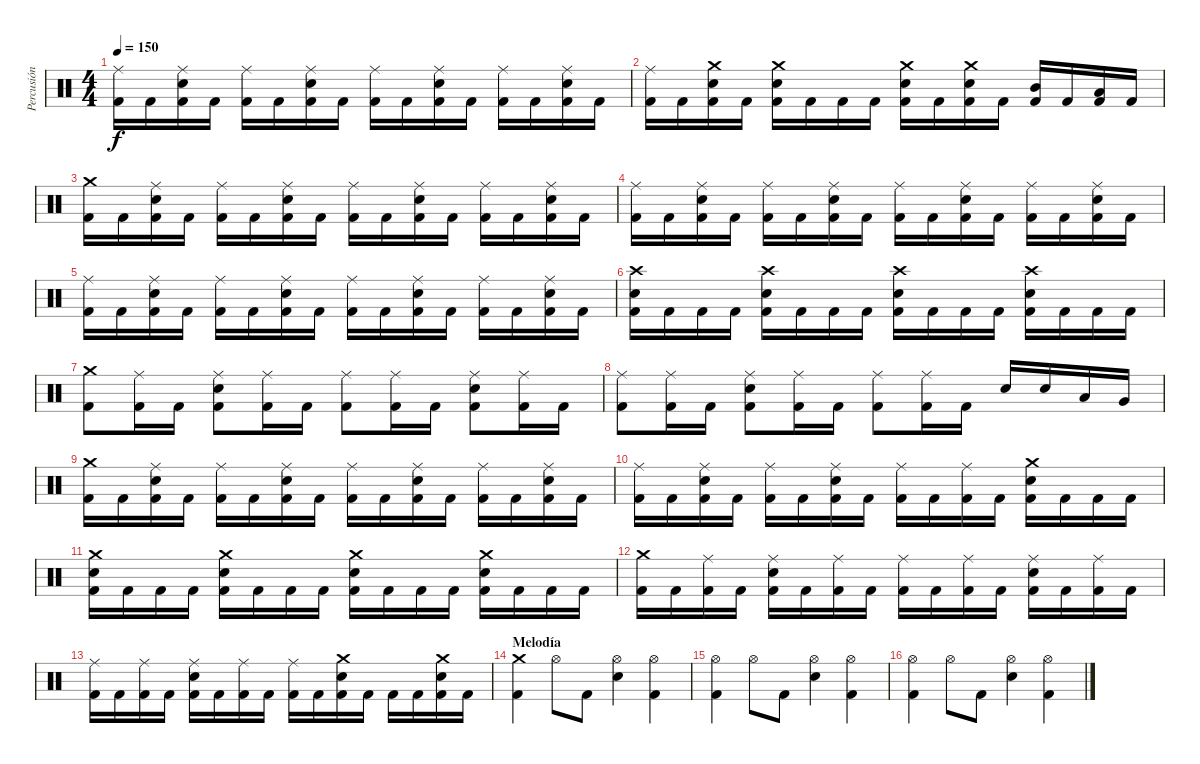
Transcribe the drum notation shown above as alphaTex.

\track ("Percusión" "Percusión") {instrument percussion}
\staff {score}
\articulation defaults
\ts (4 4)
\tempo 150
\clef neutral
\ks c
("Ride (middle)" "Kick (hit) 2").16{dy f} "Kick (hit) 2".16 ("Ride (middle)" "Kick (hit) 2" "Snare (hit) 2").16 "Kick (hit) 2".16 ("Ride (middle)" "Kick (hit) 2").16 "Kick (hit) 2".16 ("Ride (middle)" "Kick (hit) 2" "Snare (hit) 2").16 "Kick (hit) 2".16 ("Ride (middle)" "Kick (hit) 2").16 "Kick (hit) 2".16 ("Ride (middle)" "Kick (hit) 2" "Snare (hit) 2").16 "Kick (hit) 2".16 ("Ride (middle)" "Kick (hit) 2").16 "Kick (hit) 2".16 ("Ride (middle)" "Kick (hit) 2" "Snare (hit) 2").16 "Kick (hit) 2".16 |
("Ride (middle)" "Kick (hit) 2").16 "Kick (hit) 2".16 ("Crash medium (hit)" "Kick (hit) 2" "Snare (hit) 2").16 "Kick (hit) 2".16 ("Crash medium (hit)" "Kick (hit) 2" "Snare (hit) 2").16 "Kick (hit) 2".16 "Kick (hit) 2".16 "Kick (hit) 2".16 ("Crash medium (hit)" "Kick (hit) 2" "Snare (hit) 2").16 "Kick (hit) 2".16 ("Crash medium (hit)" "Kick (hit) 2" "Snare (hit) 2").16 "Kick (hit) 2".16 ("Kick (hit) 2" "Mid Tom (hit)").16 "Kick (hit) 2".16 ("Kick (hit) 2" "Low Tom (hit)").16 "Kick (hit) 2".16 |
("Crash medium (hit)" "Kick (hit) 2").16 "Kick (hit) 2".16 ("Ride (middle)" "Kick (hit) 2" "Snare (hit) 2").16 "Kick (hit) 2".16 ("Ride (middle)" "Kick (hit) 2").16 "Kick (hit) 2".16 ("Ride (middle)" "Kick (hit) 2" "Snare (hit) 2").16 "Kick (hit) 2".16 ("Ride (middle)" "Kick (hit) 2").16 "Kick (hit) 2".16 ("Ride (middle)" "Kick (hit) 2" "Snare (hit) 2").16 "Kick (hit) 2".16 ("Ride (middle)" "Kick (hit) 2").16 "Kick (hit) 2".16 ("Ride (middle)" "Kick (hit) 2" "Snare (hit) 2").16 "Kick (hit) 2".16 |
("Ride (middle)" "Kick (hit) 2").16 "Kick (hit) 2".16 ("Ride (middle)" "Kick (hit) 2" "Snare (hit) 2").16 "Kick (hit) 2".16 ("Ride (middle)" "Kick (hit) 2").16 "Kick (hit) 2".16 ("Ride (middle)" "Kick (hit) 2" "Snare (hit) 2").16 "Kick (hit) 2".16 ("Ride (middle)" "Kick (hit) 2").16 "Kick (hit) 2".16 ("Ride (middle)" "Kick (hit) 2" "Snare (hit) 2").16 "Kick (hit) 2".16 ("Ride (middle)" "Kick (hit) 2").16 "Kick (hit) 2".16 ("Ride (middle)" "Kick (hit) 2" "Snare (hit) 2").16 "Kick (hit) 2".16 |
("Ride (middle)" "Kick (hit) 2").16 "Kick (hit) 2".16 ("Ride (middle)" "Kick (hit) 2" "Snare (hit) 2").16 "Kick (hit) 2".16 ("Ride (middle)" "Kick (hit) 2").16 "Kick (hit) 2".16 ("Ride (middle)" "Kick (hit) 2" "Snare (hit) 2").16 "Kick (hit) 2".16 ("Ride (middle)" "Kick (hit) 2").16 "Kick (hit) 2".16 ("Ride (middle)" "Kick (hit) 2" "Snare (hit) 2").16 "Kick (hit) 2".16 ("Ride (middle)" "Kick (hit) 2").16 "Kick (hit) 2".16 ("Ride (middle)" "Kick (hit) 2" "Snare (hit) 2").16 "Kick (hit) 2".16 |
("Crash high (hit)" "Kick (hit) 2" "Snare (hit) 2").16 "Kick (hit) 2".16 "Kick (hit) 2".16 "Kick (hit) 2".16 ("Crash high (hit)" "Kick (hit) 2" "Snare (hit) 2").16 "Kick (hit) 2".16 "Kick (hit) 2".16 "Kick (hit) 2".16 ("Crash high (hit)" "Kick (hit) 2" "Snare (hit) 2").16 "Kick (hit) 2".16 "Kick (hit) 2".16 "Kick (hit) 2".16 ("Crash high (hit)" "Kick (hit) 2" "Snare (hit) 2").16 "Kick (hit) 2".16 "Kick (hit) 2".16 "Kick (hit) 2".16 |
("Crash medium (hit)" "Kick (hit) 2").8 ("Ride (middle)" "Kick (hit) 2").16 "Kick (hit) 2".16 ("Ride (middle)" "Kick (hit) 2" "Snare (hit) 2").8 ("Ride (middle)" "Kick (hit) 2").16 "Kick (hit) 2".16 ("Ride (middle)" "Kick (hit) 2").8 ("Ride (middle)" "Kick (hit) 2").16 "Kick (hit) 2".16 ("Ride (middle)" "Kick (hit) 2" "Snare (hit) 2").8 ("Ride (middle)" "Kick (hit) 2").16 "Kick (hit) 2".16 |
("Ride (middle)" "Kick (hit) 2").8 ("Ride (middle)" "Kick (hit) 2").16 "Kick (hit) 2".16 ("Ride (middle)" "Kick (hit) 2" "Snare (hit) 2").8 ("Ride (middle)" "Kick (hit) 2").16 "Kick (hit) 2".16 ("Ride (middle)" "Kick (hit) 2").8 ("Ride (middle)" "Kick (hit) 2").16 "Kick (hit) 2".16 "Snare (hit) 2".16 "Snare (hit) 2".16 "Low Tom (hit)".16 "Very Low Tom (hit)".16 |
("Crash medium (hit)" "Kick (hit) 2").16 "Kick (hit) 2".16 ("Ride (middle)" "Kick (hit) 2" "Snare (hit) 2").16 "Kick (hit) 2".16 ("Ride (middle)" "Kick (hit) 2").16 "Kick (hit) 2".16 ("Ride (middle)" "Kick (hit) 2" "Snare (hit) 2").16 "Kick (hit) 2".16 ("Ride (middle)" "Kick (hit) 2").16 "Kick (hit) 2".16 ("Ride (middle)" "Kick (hit) 2" "Snare (hit) 2").16 "Kick (hit) 2".16 ("Ride (middle)" "Kick (hit) 2").16 "Kick (hit) 2".16 ("Ride (middle)" "Kick (hit) 2" "Snare (hit) 2").16 "Kick (hit) 2".16 |
("Ride (middle)" "Kick (hit) 2").16 "Kick (hit) 2".16 ("Ride (middle)" "Kick (hit) 2" "Snare (hit) 2").16 "Kick (hit) 2".16 ("Ride (middle)" "Kick (hit) 2").16 "Kick (hit) 2".16 ("Ride (middle)" "Kick (hit) 2" "Snare (hit) 2").16 "Kick (hit) 2".16 ("Ride (middle)" "Kick (hit) 2").16 "Kick (hit) 2".16 ("Ride (middle)" "Kick (hit) 2").16 "Kick (hit) 2".16 ("Crash medium (hit)" "Kick (hit) 2" "Snare (hit) 2").16 "Kick (hit) 2".16 "Kick (hit) 2".16 "Kick (hit) 2".16 |
("Crash medium (hit)" "Kick (hit) 2" "Snare (hit) 2").16 "Kick (hit) 2".16 "Kick (hit) 2".16 "Kick (hit) 2".16 ("Crash medium (hit)" "Kick (hit) 2" "Snare (hit) 2").16 "Kick (hit) 2".16 "Kick (hit) 2".16 "Kick (hit) 2".16 ("Crash medium (hit)" "Kick (hit) 2" "Snare (hit) 2").16 "Kick (hit) 2".16 "Kick (hit) 2".16 "Kick (hit) 2".16 ("Crash medium (hit)" "Kick (hit) 2" "Snare (hit) 2").16 "Kick (hit) 2".16 "Kick (hit) 2".16 "Kick (hit) 2".16 |
("Crash medium (hit)" "Kick (hit) 2").16 "Kick (hit) 2".16 ("Ride (middle)" "Kick (hit) 2").16 "Kick (hit) 2".16 ("Ride (middle)" "Kick (hit) 2" "Snare (hit) 2").16 "Kick (hit) 2".16 ("Ride (middle)" "Kick (hit) 2").16 "Kick (hit) 2".16 ("Ride (middle)" "Kick (hit) 2").16 "Kick (hit) 2".16 ("Ride (middle)" "Kick (hit) 2").16 "Kick (hit) 2".16 ("Ride (middle)" "Kick (hit) 2" "Snare (hit) 2").16 "Kick (hit) 2".16 ("Ride (middle)" "Kick (hit) 2").16 "Kick (hit) 2".16 |
("Ride (middle)" "Kick (hit) 2").16 "Kick (hit) 2".16 ("Ride (middle)" "Kick (hit) 2").16 "Kick (hit) 2".16 ("Ride (middle)" "Kick (hit) 2" "Snare (hit) 2").16 "Kick (hit) 2".16 ("Ride (middle)" "Kick (hit) 2").16 "Kick (hit) 2".16 ("Ride (middle)" "Kick (hit) 2").16 "Kick (hit) 2".16 ("Crash medium (hit)" "Kick (hit) 2" "Snare (hit) 2").16 "Kick (hit) 2".16 "Kick (hit) 2".16 "Kick (hit) 2".16 ("Crash medium (hit)" "Kick (hit) 2" "Snare (hit) 2").16 "Kick (hit) 2".16 |
\section ("" "Melodía")
("Crash medium (hit)" "Kick (hit) 2").4 "Hi-Hat (open)".8 "Kick (hit) 2".8 ("Hi-Hat (open)" "Snare (hit) 2").4 ("Hi-Hat (open)" "Kick (hit) 2").4 |
("Hi-Hat (open)" "Kick (hit) 2").4 "Hi-Hat (open)".8 "Kick (hit) 2".8 ("Hi-Hat (open)" "Snare (hit) 2").4 ("Hi-Hat (open)" "Kick (hit) 2").4 |
("Hi-Hat (open)" "Kick (hit) 2").4 "Hi-Hat (open)".8 "Kick (hit) 2".8 ("Hi-Hat (open)" "Snare (hit) 2").4 ("Hi-Hat (open)" "Kick (hit) 2").4
